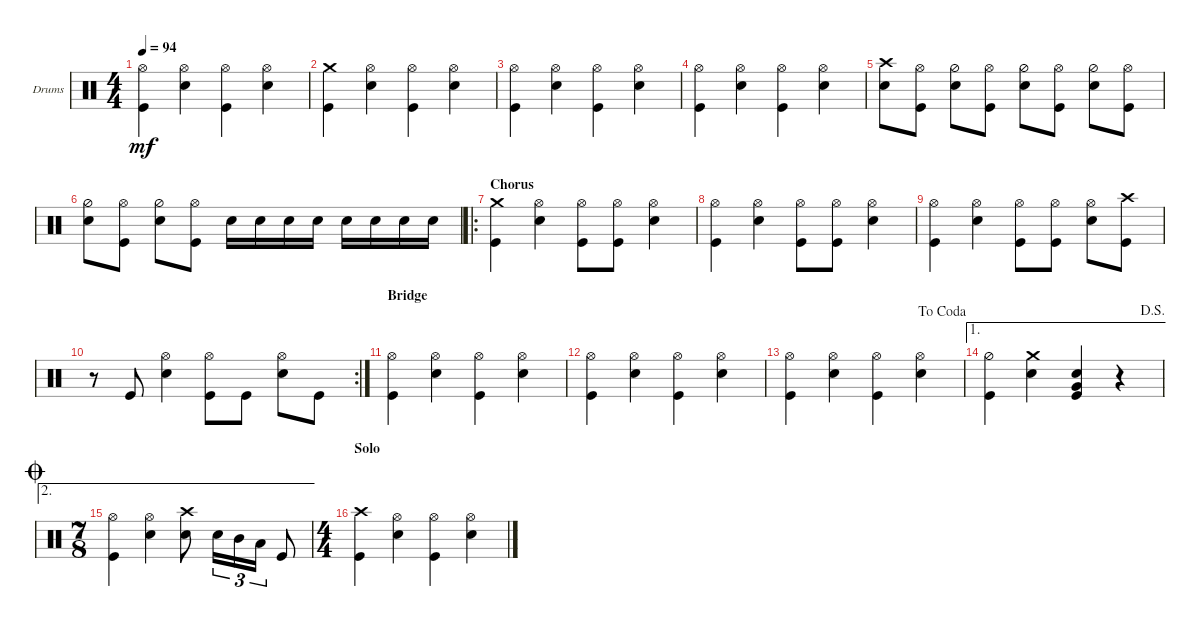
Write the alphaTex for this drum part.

\defaultSystemsLayout 4
\bracketExtendMode groupsimilarinstruments
\firstSystemTrackNameOrientation horizontal
\otherSystemsTrackNameOrientation horizontal
\track ("Drumkit" "Drums") {instrument percussion}
\staff {score}
\articulation defaults
\ts (4 4)
\tempo 94
\clef neutral
\ks c
("Kick (hit)" "Hi-Hat (open)").4{dy mf} ("Snare (hit) 2" "Hi-Hat (open)").4 ("Kick (hit)" "Hi-Hat (open)").4 ("Snare (hit) 2" "Hi-Hat (open)").4 |
("Kick (hit)" "Crash medium (hit)").4 ("Snare (hit) 2" "Hi-Hat (open)").4 ("Kick (hit)" "Hi-Hat (open)").4 ("Snare (hit) 2" "Hi-Hat (open)").4 |
("Kick (hit)" "Hi-Hat (open)").4 ("Snare (hit) 2" "Hi-Hat (open)").4 ("Kick (hit)" "Hi-Hat (open)").4 ("Snare (hit) 2" "Hi-Hat (open)").4 |
("Kick (hit)" "Hi-Hat (open)").4 ("Snare (hit) 2" "Hi-Hat (open)").4 ("Kick (hit)" "Hi-Hat (open)").4 ("Snare (hit) 2" "Hi-Hat (open)").4 |
("Snare (hit) 2" "Crash high (hit)").8 ("Hi-Hat (open)" "Kick (hit)").8 ("Snare (hit) 2" "Hi-Hat (half)").8 ("Hi-Hat (open)" "Kick (hit)").8 ("Snare (hit) 2" "Hi-Hat (half)").8 ("Hi-Hat (open)" "Kick (hit)").8 ("Snare (hit) 2" "Hi-Hat (half)").8 ("Hi-Hat (open)" "Kick (hit)").8 |
("Snare (hit) 2" "Hi-Hat (half)").8 ("Hi-Hat (open)" "Kick (hit)").8 ("Snare (hit) 2" "Hi-Hat (half)").8 ("Hi-Hat (open)" "Kick (hit)").8 "Snare (hit) 2".16 "Snare (hit) 2".16 "Snare (hit) 2".16 "Snare (hit) 2".16 "Snare (hit) 2".16 "Snare (hit) 2".16 "Snare (hit) 2".16 "Snare (hit) 2".16 |
\ro
\section ("" "Chorus")
("Kick (hit)" "Crash medium (hit)").4 ("Snare (hit) 2" "Hi-Hat (open)").4 ("Kick (hit)" "Hi-Hat (open)").8 ("Kick (hit)" "Hi-Hat (open)").8 ("Snare (hit) 2" "Hi-Hat (open)").4 |
("Kick (hit)" "Hi-Hat (open)").4 ("Snare (hit) 2" "Hi-Hat (open)").4 ("Kick (hit)" "Hi-Hat (open)").8 ("Kick (hit)" "Hi-Hat (open)").8 ("Snare (hit) 2" "Hi-Hat (open)").4 |
("Kick (hit)" "Hi-Hat (open)").4 ("Snare (hit) 2" "Hi-Hat (open)").4 ("Kick (hit)" "Hi-Hat (open)").8 ("Kick (hit)" "Hi-Hat (open)").8 ("Snare (hit) 2" "Hi-Hat (open)").8 ("Crash high (hit)" "Kick (hit)").8 |
\rc 2
r.8 "Kick (hit)".8 ("Snare (hit) 2" "Hi-Hat (open)").4 ("Kick (hit)" "Hi-Hat (open)").8 "Kick (hit)".8 ("Snare (hit) 2" "Hi-Hat (open)").8 "Kick (hit)".8 |
\section ("" "Bridge")
("Kick (hit)" "Hi-Hat (open)").4 ("Snare (hit) 2" "Hi-Hat (open)").4 ("Kick (hit)" "Hi-Hat (open)").4 ("Snare (hit) 2" "Hi-Hat (open)").4 |
("Kick (hit)" "Hi-Hat (open)").4 ("Snare (hit) 2" "Hi-Hat (open)").4 ("Kick (hit)" "Hi-Hat (open)").4 ("Snare (hit) 2" "Hi-Hat (open)").4 |
\jump dacoda
("Kick (hit)" "Hi-Hat (open)").4 ("Snare (hit) 2" "Hi-Hat (open)").4 ("Kick (hit)" "Hi-Hat (open)").4 ("Snare (hit) 2" "Hi-Hat (open)").4 |
\ae 1
\jump dalsegno
("Kick (hit)" "Hi-Hat (half)").4 ("Snare (hit) 2" "Crash medium (hit)").4 ("Kick (hit)" "Very Low Tom (hit)" "Snare (hit) 2").4 r.4 |
\ae 2
\ts (7 8)
\jump coda
("Kick (hit)" "Hi-Hat (open)").4 ("Snare (hit) 2" "Hi-Hat (open)").4 ("Snare (hit) 2" "Crash high (hit)").8 "Snare (hit) 2".16{tu (3 2)} "Mid Tom (hit)".16{tu (3 2)} "Low Tom (hit)".16{tu (3 2)} "Kick (hit)".8 |
\ts (4 4)
\section ("" "Solo")
("Kick (hit)" "Crash high (hit)").4 ("Snare (hit) 2" "Hi-Hat (open)").4 ("Kick (hit)" "Hi-Hat (open)").4 ("Snare (hit) 2" "Hi-Hat (open)").4
